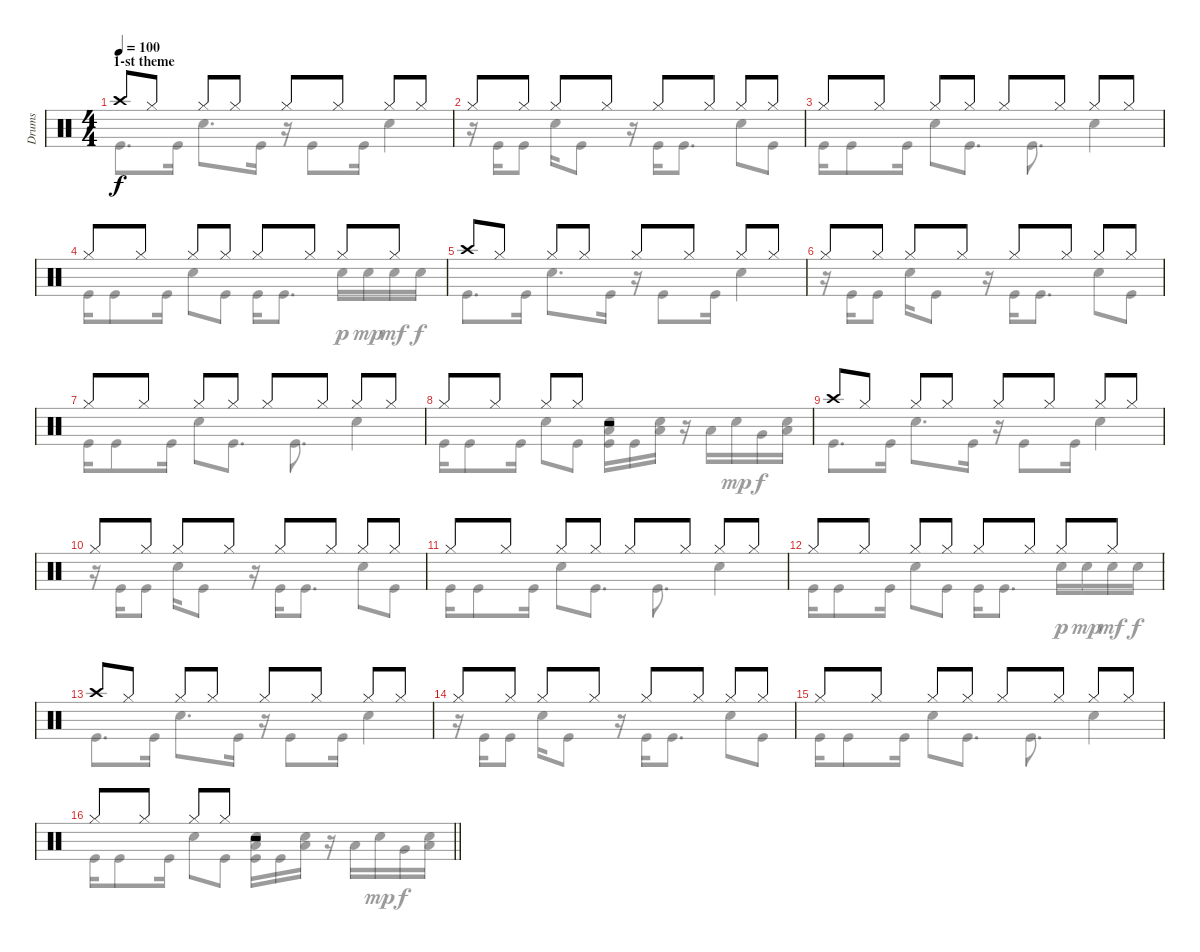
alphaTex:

\track ("Drums" "Drums") {instrument percussion}
\staff {score}
\articulation defaults
\voice
\ts (4 4)
\section ("" "1-st theme")
\tempo 100
\clef neutral
\ks c "Crash high (hit)".8{dy f} "Hi-Hat (closed)".8 "Hi-Hat (closed)".8 "Hi-Hat (closed)".8 "Hi-Hat (closed)".8 "Hi-Hat (closed)".8 "Hi-Hat (closed)".8 "Hi-Hat (closed)".8
|
"Hi-Hat (closed)".8 "Hi-Hat (closed)".8 "Hi-Hat (closed)".8 "Hi-Hat (closed)".8 "Hi-Hat (closed)".8 "Hi-Hat (closed)".8 "Hi-Hat (closed)".8 "Hi-Hat (closed)".8 |
"Hi-Hat (closed)".8 "Hi-Hat (closed)".8 "Hi-Hat (closed)".8 "Hi-Hat (closed)".8 "Hi-Hat (closed)".8 "Hi-Hat (closed)".8 "Hi-Hat (closed)".8 "Hi-Hat (closed)".8 |
"Hi-Hat (closed)".8 "Hi-Hat (closed)".8 "Hi-Hat (closed)".8 "Hi-Hat (closed)".8 "Hi-Hat (closed)".8 "Hi-Hat (closed)".8 "Hi-Hat (closed)".8 "Hi-Hat (closed)".8 |
"Crash high (hit)".8 "Hi-Hat (closed)".8 "Hi-Hat (closed)".8 "Hi-Hat (closed)".8 "Hi-Hat (closed)".8 "Hi-Hat (closed)".8 "Hi-Hat (closed)".8 "Hi-Hat (closed)".8 |
"Hi-Hat (closed)".8 "Hi-Hat (closed)".8 "Hi-Hat (closed)".8 "Hi-Hat (closed)".8 "Hi-Hat (closed)".8 "Hi-Hat (closed)".8 "Hi-Hat (closed)".8 "Hi-Hat (closed)".8 |
"Hi-Hat (closed)".8 "Hi-Hat (closed)".8 "Hi-Hat (closed)".8 "Hi-Hat (closed)".8 "Hi-Hat (closed)".8 "Hi-Hat (closed)".8 "Hi-Hat (closed)".8 "Hi-Hat (closed)".8 |
"Hi-Hat (closed)".8 "Hi-Hat (closed)".8 "Hi-Hat (closed)".8 "Hi-Hat (closed)".8 r.2 |
"Crash high (hit)".8 "Hi-Hat (closed)".8 "Hi-Hat (closed)".8 "Hi-Hat (closed)".8 "Hi-Hat (closed)".8 "Hi-Hat (closed)".8 "Hi-Hat (closed)".8 "Hi-Hat (closed)".8 |
"Hi-Hat (closed)".8 "Hi-Hat (closed)".8 "Hi-Hat (closed)".8 "Hi-Hat (closed)".8 "Hi-Hat (closed)".8 "Hi-Hat (closed)".8 "Hi-Hat (closed)".8 "Hi-Hat (closed)".8 |
"Hi-Hat (closed)".8 "Hi-Hat (closed)".8 "Hi-Hat (closed)".8 "Hi-Hat (closed)".8 "Hi-Hat (closed)".8 "Hi-Hat (closed)".8 "Hi-Hat (closed)".8 "Hi-Hat (closed)".8 |
"Hi-Hat (closed)".8 "Hi-Hat (closed)".8 "Hi-Hat (closed)".8 "Hi-Hat (closed)".8 "Hi-Hat (closed)".8 "Hi-Hat (closed)".8 "Hi-Hat (closed)".8 "Hi-Hat (closed)".8 |
"Crash high (hit)".8 "Hi-Hat (closed)".8 "Hi-Hat (closed)".8 "Hi-Hat (closed)".8 "Hi-Hat (closed)".8 "Hi-Hat (closed)".8 "Hi-Hat (closed)".8 "Hi-Hat (closed)".8 |
"Hi-Hat (closed)".8 "Hi-Hat (closed)".8 "Hi-Hat (closed)".8 "Hi-Hat (closed)".8 "Hi-Hat (closed)".8 "Hi-Hat (closed)".8 "Hi-Hat (closed)".8 "Hi-Hat (closed)".8 |
"Hi-Hat (closed)".8 "Hi-Hat (closed)".8 "Hi-Hat (closed)".8 "Hi-Hat (closed)".8 "Hi-Hat (closed)".8 "Hi-Hat (closed)".8 "Hi-Hat (closed)".8 "Hi-Hat (closed)".8 |
\barLineRight lightlight "Hi-Hat (closed)".8 "Hi-Hat (closed)".8 "Hi-Hat (closed)".8 "Hi-Hat (closed)".8
r.2
\voice
\clef neutral
\ottava regular
\simile none
\ks c "Kick (hit)".8{d dy f} "Kick (hit)".16 "Snare (hit) 2".8{d} "Kick (hit)".16
r.16 "Kick (hit)".8 "Kick (hit)".16 "Snare (hit) 2".4 |
r.16 "Kick (hit)".16 "Kick (hit)".8 "Snare (hit) 2".16 "Kick (hit)".8 r.16 "Kick (hit)".16 "Kick (hit)".8{d} "Snare (hit) 2".8 "Kick (hit)".8 |
"Kick (hit)".16 "Kick (hit)".8 "Kick (hit)".16 "Snare (hit) 2".8 "Kick (hit)".8{d} "Kick (hit)".8{d} "Snare (hit) 2".4 |
"Kick (hit)".16 "Kick (hit)".8 "Kick (hit)".16 "Snare (hit) 2".8 "Kick (hit)".8 "Kick (hit)".16 "Kick (hit)".8{d} "Snare (hit) 2".16{dy p} "Snare (hit) 2".16{dy mp} "Snare (hit) 2".16{dy mf} "Snare (hit) 2".16{dy f} |
"Kick (hit)".8{d} "Kick (hit)".16 "Snare (hit) 2".8{d} "Kick (hit)".16 r.16 "Kick (hit)".8 "Kick (hit)".16 "Snare (hit) 2".4 |
r.16 "Kick (hit)".16 "Kick (hit)".8 "Snare (hit) 2".16 "Kick (hit)".8 r.16 "Kick (hit)".16 "Kick (hit)".8{d} "Snare (hit) 2".8 "Kick (hit)".8 |
"Kick (hit)".16 "Kick (hit)".8 "Kick (hit)".16 "Snare (hit) 2".8 "Kick (hit)".8{d} "Kick (hit)".8{d} "Snare (hit) 2".4 |
"Kick (hit)".16 "Kick (hit)".8 "Kick (hit)".16 "Snare (hit) 2".8 "Kick (hit)".8 ("Snare (hit) 2" "Low Floor Tom (hit)" "Kick (hit)").16 "Kick (hit)".16 ("Snare (hit) 2" "Low Floor Tom (hit)").16 r.16 "Low Tom (hit)".16 "Snare (hit) 2".16{dy mp} "Very Low Tom (hit)".16{dy f} ("Snare (hit) 2" "Low Floor Tom (hit)").16 |
"Kick (hit)".8{d} "Kick (hit)".16 "Snare (hit) 2".8{d} "Kick (hit)".16 r.16 "Kick (hit)".8 "Kick (hit)".16 "Snare (hit) 2".4 |
r.16 "Kick (hit)".16 "Kick (hit)".8 "Snare (hit) 2".16 "Kick (hit)".8 r.16 "Kick (hit)".16 "Kick (hit)".8{d} "Snare (hit) 2".8 "Kick (hit)".8 |
"Kick (hit)".16 "Kick (hit)".8 "Kick (hit)".16 "Snare (hit) 2".8 "Kick (hit)".8{d} "Kick (hit)".8{d} "Snare (hit) 2".4 |
"Kick (hit)".16 "Kick (hit)".8 "Kick (hit)".16 "Snare (hit) 2".8 "Kick (hit)".8 "Kick (hit)".16 "Kick (hit)".8{d} "Snare (hit) 2".16{dy p} "Snare (hit) 2".16{dy mp} "Snare (hit) 2".16{dy mf} "Snare (hit) 2".16{dy f} |
"Kick (hit)".8{d} "Kick (hit)".16 "Snare (hit) 2".8{d} "Kick (hit)".16 r.16 "Kick (hit)".8 "Kick (hit)".16 "Snare (hit) 2".4 |
r.16 "Kick (hit)".16 "Kick (hit)".8 "Snare (hit) 2".16 "Kick (hit)".8 r.16 "Kick (hit)".16 "Kick (hit)".8{d} "Snare (hit) 2".8 "Kick (hit)".8 |
"Kick (hit)".16 "Kick (hit)".8 "Kick (hit)".16 "Snare (hit) 2".8 "Kick (hit)".8{d} "Kick (hit)".8{d} "Snare (hit) 2".4 |
\barLineRight lightlight "Kick (hit)".16 "Kick (hit)".8 "Kick (hit)".16 "Snare (hit) 2".8 "Kick (hit)".8
("Snare (hit) 2" "Low Floor Tom (hit)" "Kick (hit)").16 "Kick (hit)".16 ("Snare (hit) 2" "Low Floor Tom (hit)").16 r.16 "Low Tom (hit)".16 "Snare (hit) 2".16{dy mp} "Very Low Tom (hit)".16{dy f} ("Snare (hit) 2" "Low Floor Tom (hit)").16
